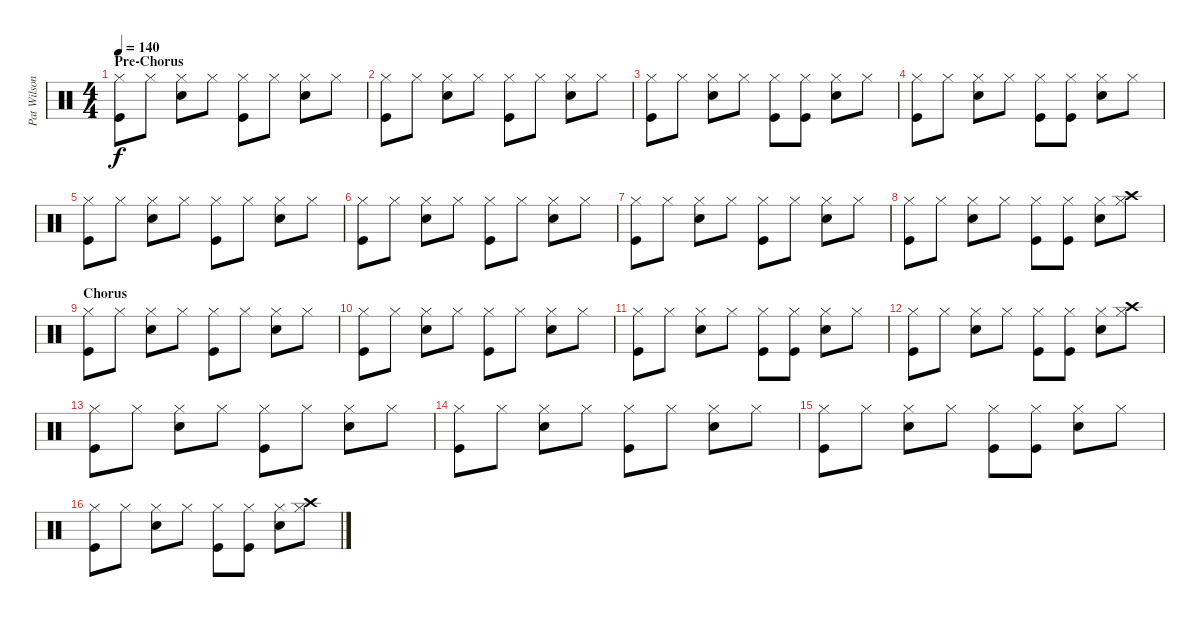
\track ("Pat Wilson " "Pat Wilson") {instrument percussion}
\staff {score}
\articulation defaults
\ts (4 4)
\section ("" "Pre-Chorus")
\tempo 140
\clef neutral
\ks c
("Kick (hit)" "Hi-Hat (closed)").8{dy f} "Hi-Hat (closed)".8 ("Snare (hit) 2" "Hi-Hat (closed)").8 "Hi-Hat (closed)".8 ("Kick (hit)" "Hi-Hat (closed)").8 "Hi-Hat (closed)".8 ("Snare (hit) 2" "Hi-Hat (closed)").8 "Hi-Hat (closed)".8 |
("Kick (hit)" "Hi-Hat (closed)").8 "Hi-Hat (closed)".8 ("Snare (hit) 2" "Hi-Hat (closed)").8 "Hi-Hat (closed)".8 ("Kick (hit)" "Hi-Hat (closed)").8 "Hi-Hat (closed)".8 ("Snare (hit) 2" "Hi-Hat (closed)").8 "Hi-Hat (closed)".8 |
("Kick (hit)" "Hi-Hat (closed)").8 "Hi-Hat (closed)".8 ("Snare (hit) 2" "Hi-Hat (closed)").8 "Hi-Hat (closed)".8 ("Kick (hit)" "Hi-Hat (closed)").8 ("Kick (hit)" "Hi-Hat (closed)").8 ("Snare (hit) 2" "Hi-Hat (closed)").8 "Hi-Hat (closed)".8 |
("Kick (hit)" "Hi-Hat (closed)").8 "Hi-Hat (closed)".8 ("Snare (hit) 2" "Hi-Hat (closed)").8 "Hi-Hat (closed)".8 ("Kick (hit)" "Hi-Hat (closed)").8 ("Kick (hit)" "Hi-Hat (closed)").8 ("Snare (hit) 2" "Hi-Hat (closed)").8 "Hi-Hat (closed)".8 |
("Kick (hit)" "Hi-Hat (closed)").8 "Hi-Hat (closed)".8 ("Snare (hit) 2" "Hi-Hat (closed)").8 "Hi-Hat (closed)".8 ("Kick (hit)" "Hi-Hat (closed)").8 "Hi-Hat (closed)".8 ("Snare (hit) 2" "Hi-Hat (closed)").8 "Hi-Hat (closed)".8 |
("Kick (hit)" "Hi-Hat (closed)").8 "Hi-Hat (closed)".8 ("Snare (hit) 2" "Hi-Hat (closed)").8 "Hi-Hat (closed)".8 ("Kick (hit)" "Hi-Hat (closed)").8 "Hi-Hat (closed)".8 ("Snare (hit) 2" "Hi-Hat (closed)").8 "Hi-Hat (closed)".8 |
("Kick (hit)" "Hi-Hat (closed)").8 "Hi-Hat (closed)".8 ("Snare (hit) 2" "Hi-Hat (closed)").8 "Hi-Hat (closed)".8 ("Kick (hit)" "Hi-Hat (closed)").8 "Hi-Hat (closed)".8 ("Snare (hit) 2" "Hi-Hat (closed)").8 "Hi-Hat (closed)".8 |
("Kick (hit)" "Hi-Hat (closed)").8 "Hi-Hat (closed)".8 ("Snare (hit) 2" "Hi-Hat (closed)").8 "Hi-Hat (closed)".8 ("Kick (hit)" "Hi-Hat (closed)").8 ("Kick (hit)" "Hi-Hat (closed)").8 ("Snare (hit) 2" "Hi-Hat (closed)").8 ("Crash high (hit)" "Hi-Hat (closed)").8 |
\section ("" "Chorus")
("Kick (hit)" "Hi-Hat (closed)").8 "Hi-Hat (closed)".8 ("Snare (hit) 2" "Hi-Hat (closed)").8 "Hi-Hat (closed)".8 ("Kick (hit)" "Hi-Hat (closed)").8 "Hi-Hat (closed)".8 ("Snare (hit) 2" "Hi-Hat (closed)").8 "Hi-Hat (closed)".8 |
("Kick (hit)" "Hi-Hat (closed)").8 "Hi-Hat (closed)".8 ("Snare (hit) 2" "Hi-Hat (closed)").8 "Hi-Hat (closed)".8 ("Kick (hit)" "Hi-Hat (closed)").8 "Hi-Hat (closed)".8 ("Snare (hit) 2" "Hi-Hat (closed)").8 "Hi-Hat (closed)".8 |
("Kick (hit)" "Hi-Hat (closed)").8 "Hi-Hat (closed)".8 ("Snare (hit) 2" "Hi-Hat (closed)").8 "Hi-Hat (closed)".8 ("Kick (hit)" "Hi-Hat (closed)").8 ("Kick (hit)" "Hi-Hat (closed)").8 ("Snare (hit) 2" "Hi-Hat (closed)").8 "Hi-Hat (closed)".8 |
("Kick (hit)" "Hi-Hat (closed)").8 "Hi-Hat (closed)".8 ("Snare (hit) 2" "Hi-Hat (closed)").8 "Hi-Hat (closed)".8 ("Kick (hit)" "Hi-Hat (closed)").8 ("Kick (hit)" "Hi-Hat (closed)").8 ("Snare (hit) 2" "Hi-Hat (closed)").8 ("Crash high (hit)" "Hi-Hat (closed)").8 |
("Kick (hit)" "Hi-Hat (closed)").8 "Hi-Hat (closed)".8 ("Snare (hit) 2" "Hi-Hat (closed)").8 "Hi-Hat (closed)".8 ("Kick (hit)" "Hi-Hat (closed)").8 "Hi-Hat (closed)".8 ("Snare (hit) 2" "Hi-Hat (closed)").8 "Hi-Hat (closed)".8 |
("Kick (hit)" "Hi-Hat (closed)").8 "Hi-Hat (closed)".8 ("Snare (hit) 2" "Hi-Hat (closed)").8 "Hi-Hat (closed)".8 ("Kick (hit)" "Hi-Hat (closed)").8 "Hi-Hat (closed)".8 ("Snare (hit) 2" "Hi-Hat (closed)").8 "Hi-Hat (closed)".8 |
("Kick (hit)" "Hi-Hat (closed)").8 "Hi-Hat (closed)".8 ("Snare (hit) 2" "Hi-Hat (closed)").8 "Hi-Hat (closed)".8 ("Kick (hit)" "Hi-Hat (closed)").8 ("Kick (hit)" "Hi-Hat (closed)").8 ("Snare (hit) 2" "Hi-Hat (closed)").8 "Hi-Hat (closed)".8 |
("Kick (hit)" "Hi-Hat (closed)").8 "Hi-Hat (closed)".8 ("Snare (hit) 2" "Hi-Hat (closed)").8 "Hi-Hat (closed)".8 ("Kick (hit)" "Hi-Hat (closed)").8 ("Kick (hit)" "Hi-Hat (closed)").8 ("Snare (hit) 2" "Hi-Hat (closed)").8 ("Crash high (hit)" "Hi-Hat (closed)").8
